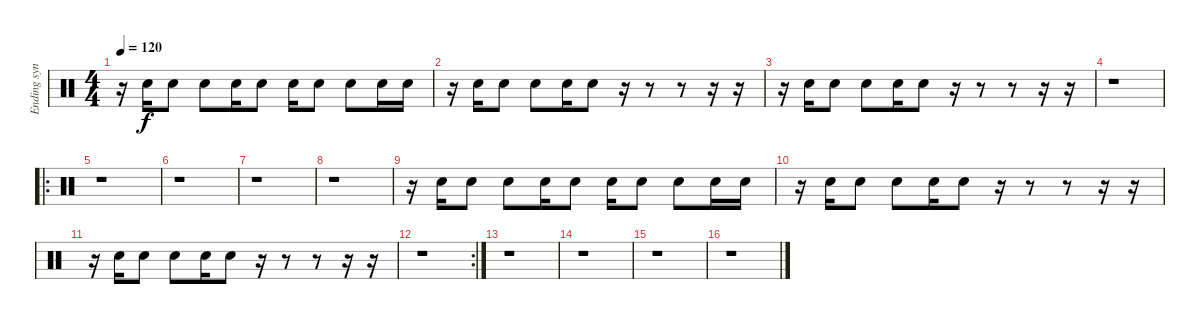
\track ("Ending synth hand claps" "Ending syn") {instrument percussion}
\staff {score}
\articulation defaults
\ts (4 4)
\tempo 120
\clef neutral
\ks c
r.16{dy f} "Hand Clap (hit)".16 "Hand Clap (hit)".8 "Hand Clap (hit)".8 "Hand Clap (hit)".16 "Hand Clap (hit)".8 "Hand Clap (hit)".16 "Hand Clap (hit)".8 "Hand Clap (hit)".8 "Hand Clap (hit)".16 "Hand Clap (hit)".16 |
r.16 "Hand Clap (hit)".16 "Hand Clap (hit)".8 "Hand Clap (hit)".8 "Hand Clap (hit)".16 "Hand Clap (hit)".8 r.16 r.8 r.8 r.16 r.16 |
r.16 "Hand Clap (hit)".16 "Hand Clap (hit)".8 "Hand Clap (hit)".8 "Hand Clap (hit)".16 "Hand Clap (hit)".8 r.16 r.8 r.8 r.16 r.16 |
r.1 |
\ro
r.1 |
r.1 |
r.1 |
r.1 |
r.16 "Hand Clap (hit)".16 "Hand Clap (hit)".8 "Hand Clap (hit)".8 "Hand Clap (hit)".16 "Hand Clap (hit)".8 "Hand Clap (hit)".16 "Hand Clap (hit)".8 "Hand Clap (hit)".8 "Hand Clap (hit)".16 "Hand Clap (hit)".16 |
r.16 "Hand Clap (hit)".16 "Hand Clap (hit)".8 "Hand Clap (hit)".8 "Hand Clap (hit)".16 "Hand Clap (hit)".8 r.16 r.8 r.8 r.16 r.16 |
r.16 "Hand Clap (hit)".16 "Hand Clap (hit)".8 "Hand Clap (hit)".8 "Hand Clap (hit)".16 "Hand Clap (hit)".8 r.16 r.8 r.8 r.16 r.16 |
\rc 2
r.1 |
r.1 |
r.1 |
r.1 |
r.1
